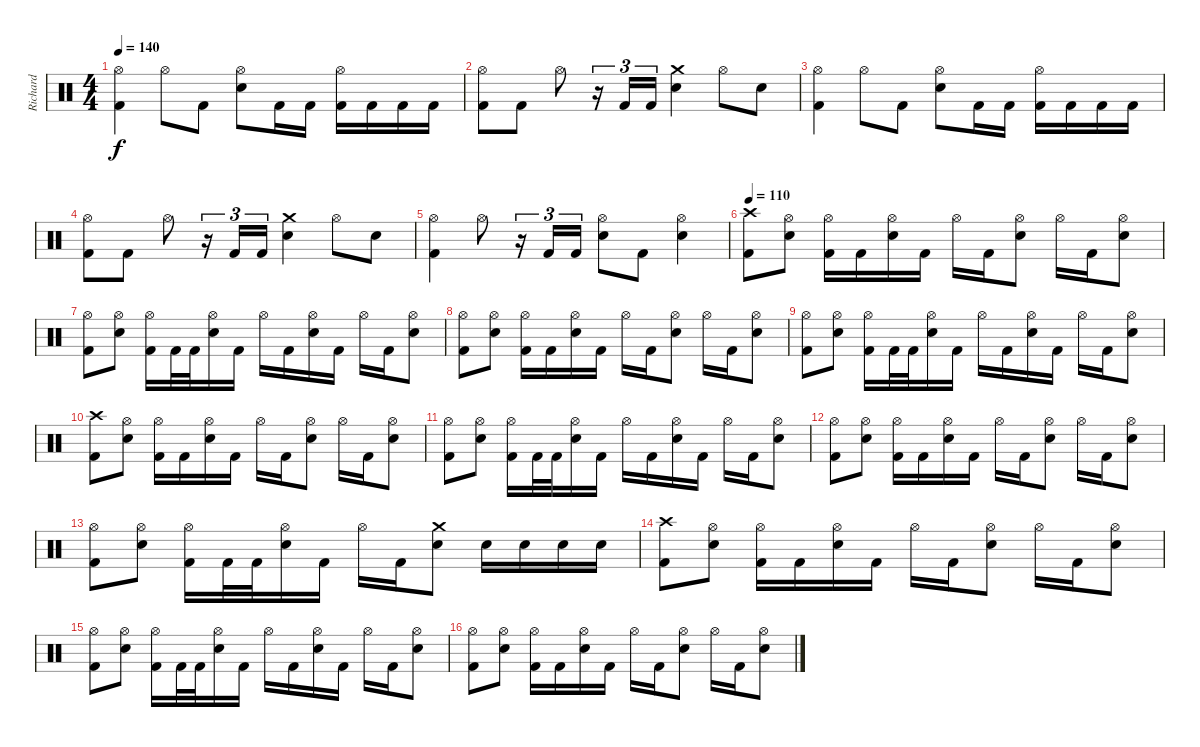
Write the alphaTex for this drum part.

\track ("Richard" "Richard") {instrument percussion}
\staff {score}
\articulation defaults
\ts (4 4)
\tempo 140
\clef neutral
\ks c
("Hi-Hat (open)" "Kick (hit) 2").4{dy f} "Hi-Hat (open)".8 "Kick (hit) 2".8 ("Hi-Hat (open)" "Snare (hit) 2").8 "Kick (hit) 2".16 "Kick (hit) 2".16 ("Hi-Hat (open)" "Kick (hit) 2").16 "Kick (hit) 2".16 "Kick (hit) 2".16 "Kick (hit) 2".16 |
("Hi-Hat (open)" "Kick (hit) 2").8 "Kick (hit) 2".8 "Hi-Hat (open)".8 r.16{tu (3 2)} "Kick (hit) 2".16{tu (3 2)} "Kick (hit) 2".16{tu (3 2)} ("Crash medium (hit)" "Snare (hit) 2").4 "Hi-Hat (open)".8 "Snare (hit) 2".8 |
("Hi-Hat (open)" "Kick (hit) 2").4 "Hi-Hat (open)".8 "Kick (hit) 2".8 ("Hi-Hat (open)" "Snare (hit) 2").8 "Kick (hit) 2".16 "Kick (hit) 2".16 ("Hi-Hat (open)" "Kick (hit) 2").16 "Kick (hit) 2".16 "Kick (hit) 2".16 "Kick (hit) 2".16 |
("Hi-Hat (open)" "Kick (hit) 2").8 "Kick (hit) 2".8 "Hi-Hat (open)".8 r.16{tu (3 2)} "Kick (hit) 2".16{tu (3 2)} "Kick (hit) 2".16{tu (3 2)} ("Crash medium (hit)" "Snare (hit) 2").4 "Hi-Hat (open)".8 "Snare (hit) 2".8 |
("Hi-Hat (open)" "Kick (hit) 2").4 "Hi-Hat (open)".8 r.16{tu (3 2)} "Kick (hit) 2".16{tu (3 2)} "Kick (hit) 2".16{tu (3 2)} ("Hi-Hat (open)" "Snare (hit) 2").8 "Kick (hit) 2".8 ("Hi-Hat (open)" "Snare (hit) 2").4 |
\tempo 110
("Crash high (hit)" "Kick (hit) 2").8 ("Hi-Hat (open)" "Snare (hit) 2").8 ("Hi-Hat (open)" "Kick (hit) 2").16 "Kick (hit) 2".16 ("Hi-Hat (open)" "Snare (hit) 2").16 "Kick (hit) 2".16 "Hi-Hat (open)".16 "Kick (hit) 2".16 ("Hi-Hat (open)" "Snare (hit) 2").8 "Hi-Hat (open)".16 "Kick (hit) 2".16 ("Hi-Hat (open)" "Snare (hit) 2").8 |
("Hi-Hat (open)" "Kick (hit) 2").8 ("Hi-Hat (open)" "Snare (hit) 2").8 ("Hi-Hat (open)" "Kick (hit) 2").16 "Kick (hit) 2".32 "Kick (hit) 2".32 ("Hi-Hat (open)" "Snare (hit) 2").16 "Kick (hit) 2".16 "Hi-Hat (open)".16 "Kick (hit) 2".16 ("Hi-Hat (open)" "Snare (hit) 2").16 "Kick (hit) 2".16 "Hi-Hat (open)".16 "Kick (hit) 2".16 ("Hi-Hat (open)" "Snare (hit) 2").8 |
("Hi-Hat (open)" "Kick (hit) 2").8 ("Hi-Hat (open)" "Snare (hit) 2").8 ("Hi-Hat (open)" "Kick (hit) 2").16 "Kick (hit) 2".16 ("Hi-Hat (open)" "Snare (hit) 2").16 "Kick (hit) 2".16 "Hi-Hat (open)".16 "Kick (hit) 2".16 ("Hi-Hat (open)" "Snare (hit) 2").8 "Hi-Hat (open)".16 "Kick (hit) 2".16 ("Hi-Hat (open)" "Snare (hit) 2").8 |
("Hi-Hat (open)" "Kick (hit) 2").8 ("Hi-Hat (open)" "Snare (hit) 2").8 ("Hi-Hat (open)" "Kick (hit) 2").16 "Kick (hit) 2".32 "Kick (hit) 2".32 ("Hi-Hat (open)" "Snare (hit) 2").16 "Kick (hit) 2".16 "Hi-Hat (open)".16 "Kick (hit) 2".16 ("Hi-Hat (open)" "Snare (hit) 2").16 "Kick (hit) 2".16 "Hi-Hat (open)".16 "Kick (hit) 2".16 ("Hi-Hat (open)" "Snare (hit) 2").8 |
("Crash high (hit)" "Kick (hit) 2").8 ("Hi-Hat (open)" "Snare (hit) 2").8 ("Hi-Hat (open)" "Kick (hit) 2").16 "Kick (hit) 2".16 ("Hi-Hat (open)" "Snare (hit) 2").16 "Kick (hit) 2".16 "Hi-Hat (open)".16 "Kick (hit) 2".16 ("Hi-Hat (open)" "Snare (hit) 2").8 "Hi-Hat (open)".16 "Kick (hit) 2".16 ("Hi-Hat (open)" "Snare (hit) 2").8 |
("Hi-Hat (open)" "Kick (hit) 2").8 ("Hi-Hat (open)" "Snare (hit) 2").8 ("Hi-Hat (open)" "Kick (hit) 2").16 "Kick (hit) 2".32 "Kick (hit) 2".32 ("Hi-Hat (open)" "Snare (hit) 2").16 "Kick (hit) 2".16 "Hi-Hat (open)".16 "Kick (hit) 2".16 ("Hi-Hat (open)" "Snare (hit) 2").16 "Kick (hit) 2".16 "Hi-Hat (open)".16 "Kick (hit) 2".16 ("Hi-Hat (open)" "Snare (hit) 2").8 |
("Hi-Hat (open)" "Kick (hit) 2").8 ("Hi-Hat (open)" "Snare (hit) 2").8 ("Hi-Hat (open)" "Kick (hit) 2").16 "Kick (hit) 2".16 ("Hi-Hat (open)" "Snare (hit) 2").16 "Kick (hit) 2".16 "Hi-Hat (open)".16 "Kick (hit) 2".16 ("Hi-Hat (open)" "Snare (hit) 2").8 "Hi-Hat (open)".16 "Kick (hit) 2".16 ("Hi-Hat (open)" "Snare (hit) 2").8 |
("Hi-Hat (open)" "Kick (hit) 2").8 ("Hi-Hat (open)" "Snare (hit) 2").8 ("Hi-Hat (open)" "Kick (hit) 2").16 "Kick (hit) 2".32 "Kick (hit) 2".32 ("Hi-Hat (open)" "Snare (hit) 2").16 "Kick (hit) 2".16 "Hi-Hat (open)".16 "Kick (hit) 2".16 ("Crash medium (hit)" "Snare (hit) 2").8 "Snare (hit) 2".16 "Snare (hit) 2".16 "Snare (hit) 2".16 "Snare (hit) 2".16 |
("Crash high (hit)" "Kick (hit) 2").8 ("Hi-Hat (open)" "Snare (hit) 2").8 ("Hi-Hat (open)" "Kick (hit) 2").16 "Kick (hit) 2".16 ("Hi-Hat (open)" "Snare (hit) 2").16 "Kick (hit) 2".16 "Hi-Hat (open)".16 "Kick (hit) 2".16 ("Hi-Hat (open)" "Snare (hit) 2").8 "Hi-Hat (open)".16 "Kick (hit) 2".16 ("Hi-Hat (open)" "Snare (hit) 2").8 |
("Hi-Hat (open)" "Kick (hit) 2").8 ("Hi-Hat (open)" "Snare (hit) 2").8 ("Hi-Hat (open)" "Kick (hit) 2").16 "Kick (hit) 2".32 "Kick (hit) 2".32 ("Hi-Hat (open)" "Snare (hit) 2").16 "Kick (hit) 2".16 "Hi-Hat (open)".16 "Kick (hit) 2".16 ("Hi-Hat (open)" "Snare (hit) 2").16 "Kick (hit) 2".16 "Hi-Hat (open)".16 "Kick (hit) 2".16 ("Hi-Hat (open)" "Snare (hit) 2").8 |
("Hi-Hat (open)" "Kick (hit) 2").8 ("Hi-Hat (open)" "Snare (hit) 2").8 ("Hi-Hat (open)" "Kick (hit) 2").16 "Kick (hit) 2".16 ("Hi-Hat (open)" "Snare (hit) 2").16 "Kick (hit) 2".16 "Hi-Hat (open)".16 "Kick (hit) 2".16 ("Hi-Hat (open)" "Snare (hit) 2").8 "Hi-Hat (open)".16 "Kick (hit) 2".16 ("Hi-Hat (open)" "Snare (hit) 2").8
